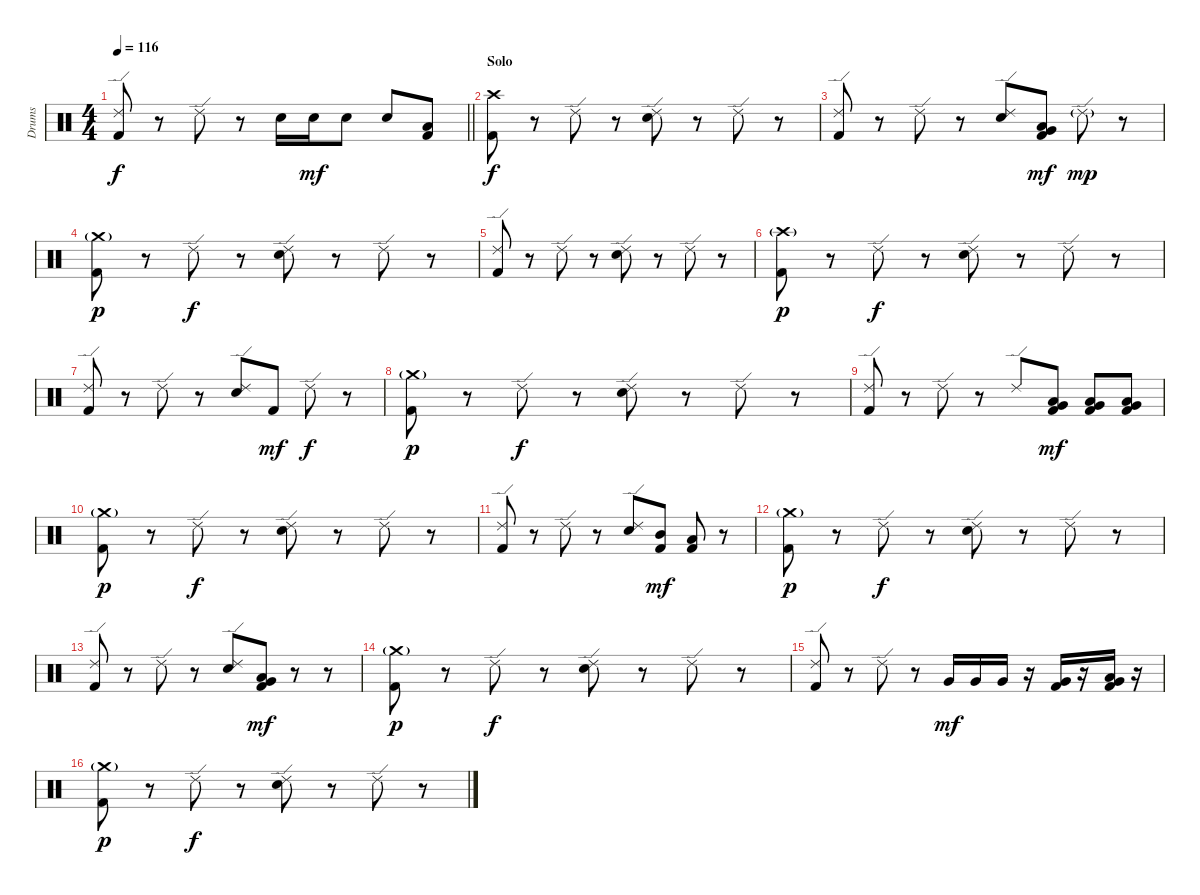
\track ("Drums" "Drums") {instrument percussion}
\staff {score}
\articulation defaults
\ts (4 4)
\tempo 116
\clef neutral
\barLineRight lightlight
\ks c
("Ride (edge) 2" "Kick (hit) 2").8{dy f} r.8 "Ride (edge) 2".8 r.8 "Snare (hit) 2".16 "Snare (hit) 2".16{dy mf} "Snare (hit) 2".8 "Snare (hit) 2".8 ("Low Floor Tom (hit)" "Kick (hit) 2").8 |
\section ("" "Solo")
("Crash high (hit)" "Kick (hit) 2").8{dy f} r.8 "Ride (edge) 2".8 r.8 ("Ride (edge) 2" "Snare (hit) 2").8 r.8 "Ride (edge) 2".8 r.8 |
("Ride (edge) 2" "Kick (hit) 2").8 r.8 "Ride (edge) 2".8 r.8 ("Ride (edge) 2" "Snare (hit) 2").8 ("Very Low Tom (hit)" "Low Floor Tom (hit)" "Kick (hit) 2").8{dy mf} "Ride (edge) 2"{g}.8{dy mp} r.8 |
("Crash medium (hit)"{g} "Kick (hit) 2").8{dy p} r.8 "Ride (edge) 2".8{dy f} r.8 ("Ride (edge) 2" "Snare (hit) 2").8 r.8 "Ride (edge) 2".8 r.8 |
("Ride (edge) 2" "Kick (hit) 2").8 r.8 "Ride (edge) 2".8 r.8 ("Ride (edge) 2" "Snare (hit) 2").8 r.8 "Ride (edge) 2".8 r.8 |
("Crash high (hit)"{g} "Kick (hit) 2").8{dy p} r.8 "Ride (edge) 2".8{dy f} r.8 ("Ride (edge) 2" "Snare (hit) 2").8 r.8 "Ride (edge) 2".8 r.8 |
("Ride (edge) 2" "Kick (hit) 2").8 r.8 "Ride (edge) 2".8 r.8 ("Ride (edge) 2" "Snare (hit) 2").8 "Kick (hit) 2".8{dy mf} "Ride (edge) 2".8{dy f} r.8 |
("Crash medium (hit)"{g} "Kick (hit) 2").8{dy p} r.8 "Ride (edge) 2".8{dy f} r.8 ("Ride (edge) 2" "Snare (hit) 2").8 r.8 "Ride (edge) 2".8 r.8 |
("Ride (edge) 2" "Kick (hit) 2").8 r.8 "Ride (edge) 2".8 r.8 "Ride (edge) 2".8 ("Low Tom (hit)" "Very Low Tom (hit)" "Kick (hit) 2").8{dy mf} ("Low Tom (hit)" "Very Low Tom (hit)" "Kick (hit) 2").8 ("Very Low Tom (hit)" "Low Floor Tom (hit)" "Kick (hit) 2").8 |
("Crash medium (hit)"{g} "Kick (hit) 2").8{dy p} r.8 "Ride (edge) 2".8{dy f} r.8 ("Ride (edge) 2" "Snare (hit) 2").8 r.8 "Ride (edge) 2".8 r.8 |
("Ride (edge) 2" "Kick (hit) 2").8 r.8 "Ride (edge) 2".8 r.8 ("Ride (edge) 2" "Snare (hit) 2").8 ("Mid Tom (hit)" "Kick (hit) 2").8{dy mf} ("Low Tom (hit)" "Kick (hit) 2").8 r.8 |
("Crash medium (hit)"{g} "Kick (hit) 2").8{dy p} r.8 "Ride (edge) 2".8{dy f} r.8 ("Ride (edge) 2" "Snare (hit) 2").8 r.8 "Ride (edge) 2".8 r.8 |
("Ride (edge) 2" "Kick (hit) 2").8 r.8 "Ride (edge) 2".8 r.8 ("Ride (edge) 2" "Snare (hit) 2").8 ("Very Low Tom (hit)" "Low Floor Tom (hit)" "Kick (hit) 2").8{dy mf} r.8 r.8 |
("Crash medium (hit)"{g} "Kick (hit) 2").8{dy p} r.8 "Ride (edge) 2".8{dy f} r.8 ("Ride (edge) 2" "Snare (hit) 2").8 r.8 "Ride (edge) 2".8 r.8 |
("Ride (edge) 2" "Kick (hit) 2").8 r.8 "Ride (edge) 2".8 r.8 "Very Low Tom (hit)".16{dy mf} "Very Low Tom (hit)".16 "Very Low Tom (hit)".16 r.16 ("Very Low Tom (hit)" "Kick (hit) 2").16 r.16 ("Very Low Tom (hit)" "Low Floor Tom (hit)" "Kick (hit) 2").16 r.16 |
("Crash medium (hit)"{g} "Kick (hit) 2").8{dy p} r.8 "Ride (edge) 2".8{dy f} r.8 ("Ride (edge) 2" "Snare (hit) 2").8 r.8 "Ride (edge) 2".8 r.8
